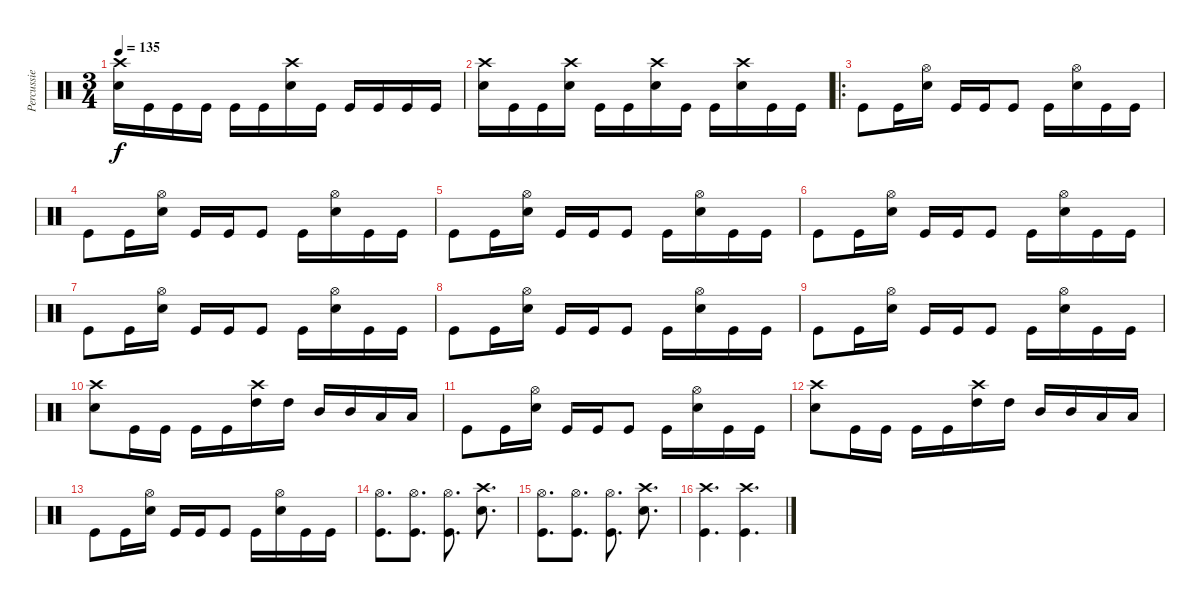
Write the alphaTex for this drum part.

\track ("Percussie" "Percussie") {instrument percussion}
\staff {score}
\articulation defaults
\ts (3 4)
\tempo 135
\clef neutral
\ks c
("Crash high (hit)" "Snare (hit) 2").16{dy f} "Kick (hit)".16 "Kick (hit)".16 "Kick (hit)".16 "Kick (hit)".16 "Kick (hit)".16 ("Crash high (hit)" "Snare (hit) 2").16 "Kick (hit)".16 "Kick (hit)".16 "Kick (hit)".16 "Kick (hit)".16 "Kick (hit)".16 |
("Crash high (hit)" "Snare (hit) 2").16 "Kick (hit)".16 "Kick (hit)".16 ("Crash high (hit)" "Snare (hit) 2").16 "Kick (hit)".16 "Kick (hit)".16 ("Crash high (hit)" "Snare (hit) 2").16 "Kick (hit)".16 "Kick (hit)".16 ("Crash high (hit)" "Snare (hit) 2").16 "Kick (hit)".16 "Kick (hit)".16 |
\ro "Kick (hit)".8 "Kick (hit)".16
("Hi-Hat (open)" "Snare (hit) 2").16 "Kick (hit)".16 "Kick (hit)".16 "Kick (hit)".8 "Kick (hit)".16 ("Hi-Hat (open)" "Snare (hit) 2").16 "Kick (hit)".16 "Kick (hit)".16 |
"Kick (hit)".8 "Kick (hit)".16 ("Hi-Hat (open)" "Snare (hit) 2").16 "Kick (hit)".16 "Kick (hit)".16 "Kick (hit)".8 "Kick (hit)".16 ("Hi-Hat (open)" "Snare (hit) 2").16 "Kick (hit)".16 "Kick (hit)".16 |
"Kick (hit)".8 "Kick (hit)".16 ("Hi-Hat (open)" "Snare (hit) 2").16 "Kick (hit)".16 "Kick (hit)".16 "Kick (hit)".8 "Kick (hit)".16 ("Hi-Hat (open)" "Snare (hit) 2").16 "Kick (hit)".16 "Kick (hit)".16 |
"Kick (hit)".8 "Kick (hit)".16 ("Hi-Hat (open)" "Snare (hit) 2").16 "Kick (hit)".16 "Kick (hit)".16 "Kick (hit)".8 "Kick (hit)".16 ("Hi-Hat (open)" "Snare (hit) 2").16 "Kick (hit)".16 "Kick (hit)".16 |
"Kick (hit)".8 "Kick (hit)".16 ("Hi-Hat (open)" "Snare (hit) 2").16 "Kick (hit)".16 "Kick (hit)".16 "Kick (hit)".8 "Kick (hit)".16 ("Hi-Hat (open)" "Snare (hit) 2").16 "Kick (hit)".16 "Kick (hit)".16 |
"Kick (hit)".8 "Kick (hit)".16 ("Hi-Hat (open)" "Snare (hit) 2").16 "Kick (hit)".16 "Kick (hit)".16 "Kick (hit)".8 "Kick (hit)".16 ("Hi-Hat (open)" "Snare (hit) 2").16 "Kick (hit)".16 "Kick (hit)".16 |
"Kick (hit)".8 "Kick (hit)".16 ("Hi-Hat (open)" "Snare (hit) 2").16 "Kick (hit)".16 "Kick (hit)".16 "Kick (hit)".8 "Kick (hit)".16 ("Hi-Hat (open)" "Snare (hit) 2").16 "Kick (hit)".16 "Kick (hit)".16 |
("Crash high (hit)" "Snare (hit) 2").8 "Kick (hit)".16 "Kick (hit)".16 "Kick (hit)".16 "Kick (hit)".16 ("Crash high (hit)" "High Tom (hit)").16 "High Tom (hit)".16 "Mid Tom (hit)".16 "Mid Tom (hit)".16 "Low Tom (hit)".16 "Low Tom (hit)".16 |
"Kick (hit)".8 "Kick (hit)".16 ("Hi-Hat (open)" "Snare (hit) 2").16 "Kick (hit)".16 "Kick (hit)".16 "Kick (hit)".8 "Kick (hit)".16 ("Hi-Hat (open)" "Snare (hit) 2").16 "Kick (hit)".16 "Kick (hit)".16 |
("Crash high (hit)" "Snare (hit) 2").8 "Kick (hit)".16 "Kick (hit)".16 "Kick (hit)".16 "Kick (hit)".16 ("Crash high (hit)" "High Tom (hit)").16 "High Tom (hit)".16 "Mid Tom (hit)".16 "Mid Tom (hit)".16 "Low Tom (hit)".16 "Low Tom (hit)".16 |
"Kick (hit)".8 "Kick (hit)".16 ("Hi-Hat (open)" "Snare (hit) 2").16 "Kick (hit)".16 "Kick (hit)".16 "Kick (hit)".8 "Kick (hit)".16 ("Hi-Hat (open)" "Snare (hit) 2").16 "Kick (hit)".16 "Kick (hit)".16 |
("Hi-Hat (open)" "Kick (hit)").8{d} ("Hi-Hat (open)" "Kick (hit)").8{d} ("Hi-Hat (open)" "Kick (hit)").8{d} ("Crash high (hit)" "Snare (hit) 2").8{d} |
("Hi-Hat (open)" "Kick (hit)").8{d} ("Hi-Hat (open)" "Kick (hit)").8{d} ("Hi-Hat (open)" "Kick (hit)").8{d} ("Crash high (hit)" "Snare (hit) 2").8{d} |
("Crash high (hit)" "Kick (hit)").4{d} ("Crash high (hit)" "Kick (hit)").4{d}
